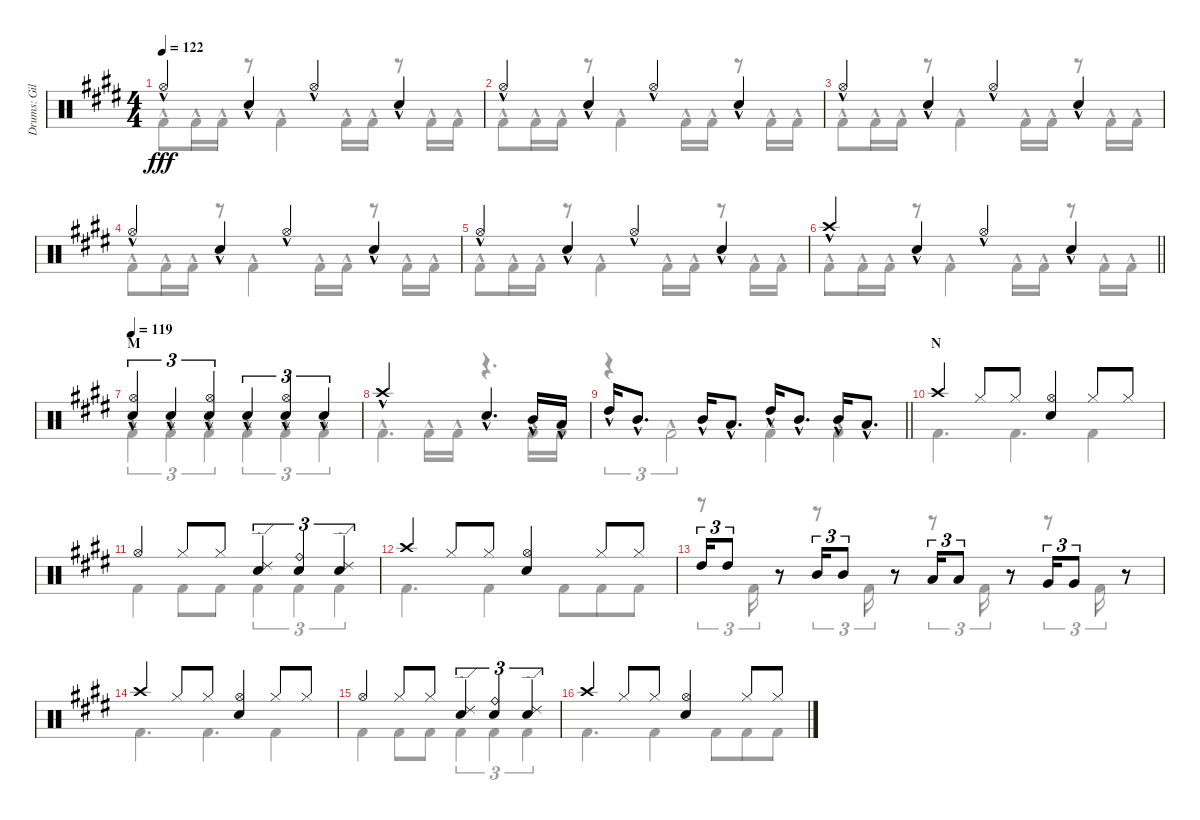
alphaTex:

\track ("Drums: Gil" "Drums: Gil") {instrument percussion}
\staff {score}
\articulation defaults
\voice
\ts (4 4)
\tempo 122
\clef neutral
\ks e "Hi-Hat (open)"{hac}.4{dy fff} "Snare (hit) 2"{hac}.4 "Hi-Hat (open)"{hac}.4 "Snare (hit) 2"{hac}.4
|
"Hi-Hat (open)"{hac}.4 "Snare (hit) 2"{hac}.4 "Hi-Hat (open)"{hac}.4 "Snare (hit) 2"{hac}.4 |
"Hi-Hat (open)"{hac}.4 "Snare (hit) 2"{hac}.4 "Hi-Hat (open)"{hac}.4 "Snare (hit) 2"{hac}.4 |
"Hi-Hat (open)"{hac}.4 "Snare (hit) 2"{hac}.4 "Hi-Hat (open)"{hac}.4 "Snare (hit) 2"{hac}.4 |
"Hi-Hat (open)"{hac}.4 "Snare (hit) 2"{hac}.4 "Hi-Hat (open)"{hac}.4 "Snare (hit) 2"{hac}.4 |
\barLineRight lightlight "Crash high (hit)"{hac}.4 "Snare (hit) 2"{hac}.4 "Hi-Hat (open)"{hac}.4 "Snare (hit) 2"{hac}.4
|
\section ("" "M")
\tempo 119
("Hi-Hat (open)"{hac} "Snare (hit) 2"{hac}).4{tu (3 2)} "Snare (hit) 2"{hac}.4{tu (3 2)} ("Hi-Hat (open)"{hac} "Snare (hit) 2"{hac}).4{tu (3 2)} "Snare (hit) 2"{hac}.4{tu (3 2)} ("Hi-Hat (open)"{hac} "Snare (hit) 2"{hac}).4{tu (3 2)} "Snare (hit) 2"{hac}.4{tu (3 2)} |
"Crash high (hit)"{hac}.2 "Snare (hit) 2"{hac}.4{d} "Mid Tom (hit)"{hac}.16 "Low Tom (hit)"{hac}.16 |
\barLineRight lightlight "High Tom (hit)"{hac}.16 "Mid Tom (hit)"{hac}.8{d} "Mid Tom (hit)"{hac}.16 "Low Tom (hit)"{hac}.8{d} "High Tom (hit)"{hac}.16 "Mid Tom (hit)"{hac}.8{d} "Mid Tom (hit)"{hac}.16 "Low Tom (hit)"{hac}.8{d}
|
\section ("" "N")
"Crash high (hit)".4 "Hi-Hat (closed)".8 "Hi-Hat (closed)".8 ("Hi-Hat (open)" "Snare (hit) 2").4 "Hi-Hat (closed)".8 "Hi-Hat (closed)".8 |
"Hi-Hat (open)".4 "Hi-Hat (closed)".8 "Hi-Hat (closed)".8 ("Ride (edge) 2" "Snare (hit) 2").4{tu (3 2)} ("Ride (bell)" "Snare (hit) 2").4{tu (3 2)} ("Ride (edge) 2" "Snare (hit) 2").4{tu (3 2)} |
"Crash high (hit)".4 "Hi-Hat (closed)".8 "Hi-Hat (closed)".8 ("Hi-Hat (open)" "Snare (hit) 2").4 "Hi-Hat (closed)".8 "Hi-Hat (closed)".8 |
"High Tom (hit)".16{tu (3 2)} "High Tom (hit)".8{tu (3 2)} r.8 "Mid Tom (hit)".16{tu (3 2)} "Mid Tom (hit)".8{tu (3 2)} r.8 "Low Tom (hit)".16{tu (3 2)} "Low Tom (hit)".8{tu (3 2)} r.8 "Very Low Tom (hit)".16{tu (3 2)} "Very Low Tom (hit)".8{tu (3 2)} r.8 |
"Crash high (hit)".4 "Hi-Hat (closed)".8 "Hi-Hat (closed)".8 ("Hi-Hat (open)" "Snare (hit) 2").4 "Hi-Hat (closed)".8 "Hi-Hat (closed)".8 |
"Hi-Hat (open)".4 "Hi-Hat (closed)".8 "Hi-Hat (closed)".8 ("Ride (edge) 2" "Snare (hit) 2").4{tu (3 2)} ("Ride (bell)" "Snare (hit) 2").4{tu (3 2)} ("Ride (edge) 2" "Snare (hit) 2").4{tu (3 2)} |
"Crash high (hit)".4 "Hi-Hat (closed)".8 "Hi-Hat (closed)".8 ("Hi-Hat (open)" "Snare (hit) 2").4 "Hi-Hat (closed)".8 "Hi-Hat (closed)".8
\voice
\clef neutral
\ottava regular
\simile none
\ks e "Kick (hit) 2"{hac}.8{dy fff} "Kick (hit) 2"{hac}.16 "Kick (hit) 2"{hac}.16
r.8 "Kick (hit) 2"{hac}.4 "Kick (hit) 2"{hac}.16 "Kick (hit) 2"{hac}.16 r.8 "Kick (hit) 2"{hac}.16 "Kick (hit) 2"{hac}.16 |
"Kick (hit) 2"{hac}.8 "Kick (hit) 2"{hac}.16 "Kick (hit) 2"{hac}.16 r.8 "Kick (hit) 2"{hac}.4 "Kick (hit) 2"{hac}.16 "Kick (hit) 2"{hac}.16 r.8 "Kick (hit) 2"{hac}.16 "Kick (hit) 2"{hac}.16 |
"Kick (hit) 2"{hac}.8 "Kick (hit) 2"{hac}.16 "Kick (hit) 2"{hac}.16 r.8 "Kick (hit) 2"{hac}.4 "Kick (hit) 2"{hac}.16 "Kick (hit) 2"{hac}.16 r.8 "Kick (hit) 2"{hac}.16 "Kick (hit) 2"{hac}.16 |
"Kick (hit) 2"{hac}.8 "Kick (hit) 2"{hac}.16 "Kick (hit) 2"{hac}.16 r.8 "Kick (hit) 2"{hac}.4 "Kick (hit) 2"{hac}.16 "Kick (hit) 2"{hac}.16 r.8 "Kick (hit) 2"{hac}.16 "Kick (hit) 2"{hac}.16 |
"Kick (hit) 2"{hac}.8 "Kick (hit) 2"{hac}.16 "Kick (hit) 2"{hac}.16 r.8 "Kick (hit) 2"{hac}.4 "Kick (hit) 2"{hac}.16 "Kick (hit) 2"{hac}.16 r.8 "Kick (hit) 2"{hac}.16 "Kick (hit) 2"{hac}.16 |
\barLineRight lightlight "Kick (hit) 2"{hac}.8 "Kick (hit) 2"{hac}.16 "Kick (hit) 2"{hac}.16
r.8 "Kick (hit) 2"{hac}.4 "Kick (hit) 2"{hac}.16 "Kick (hit) 2"{hac}.16 r.8 "Kick (hit) 2"{hac}.16 "Kick (hit) 2"{hac}.16 |
"Kick (hit) 2"{hac}.4{tu (3 2)} "Kick (hit) 2"{hac}.4{tu (3 2)} "Kick (hit) 2"{hac}.4{tu (3 2)} "Kick (hit) 2"{hac}.4{tu (3 2)} "Kick (hit) 2"{hac}.4{tu (3 2)} "Kick (hit) 2"{hac}.4{tu (3 2)} |
"Kick (hit) 2"{hac}.4{d} "Kick (hit) 2"{hac}.16 "Kick (hit) 2"{hac}.16 r.4{d} "Kick (hit) 2"{hac}.16 "Kick (hit) 2"{hac}.16 |
\barLineRight lightlight
r.4{tu (3 2)} "Kick (hit) 2"{hac}.2{tu (3 2)} "Kick (hit) 2"{hac}.4 "Kick (hit) 2"{hac}.4 |
"Kick (hit) 2".4{d} "Kick (hit) 2".4{d} "Kick (hit) 2".4 |
"Kick (hit) 2".4 "Kick (hit) 2".8 "Kick (hit) 2".8 "Kick (hit) 2".4{tu (3 2)} "Kick (hit) 2".4{tu (3 2)} "Kick (hit) 2".4{tu (3 2)} |
"Kick (hit) 2".4{d} "Kick (hit) 2".4 "Kick (hit) 2".8{beam merge} "Kick (hit) 2".8 "Kick (hit) 2".8 |
r.8{tu (3 2)} "Kick (hit) 2".16{tu (3 2)} r.8 r.8{tu (3 2)} "Kick (hit) 2".16{tu (3 2)} r.8 r.8{tu (3 2)} "Kick (hit) 2".16{tu (3 2)} r.8 r.8{tu (3 2)} "Kick (hit) 2".16{tu (3 2)} r.8 |
"Kick (hit) 2".4{d} "Kick (hit) 2".4{d} "Kick (hit) 2".4 |
"Kick (hit) 2".4 "Kick (hit) 2".8 "Kick (hit) 2".8 "Kick (hit) 2".4{tu (3 2)} "Kick (hit) 2".4{tu (3 2)} "Kick (hit) 2".4{tu (3 2)} |
"Kick (hit) 2".4{d} "Kick (hit) 2".4 "Kick (hit) 2".8{beam merge} "Kick (hit) 2".8 "Kick (hit) 2".8
